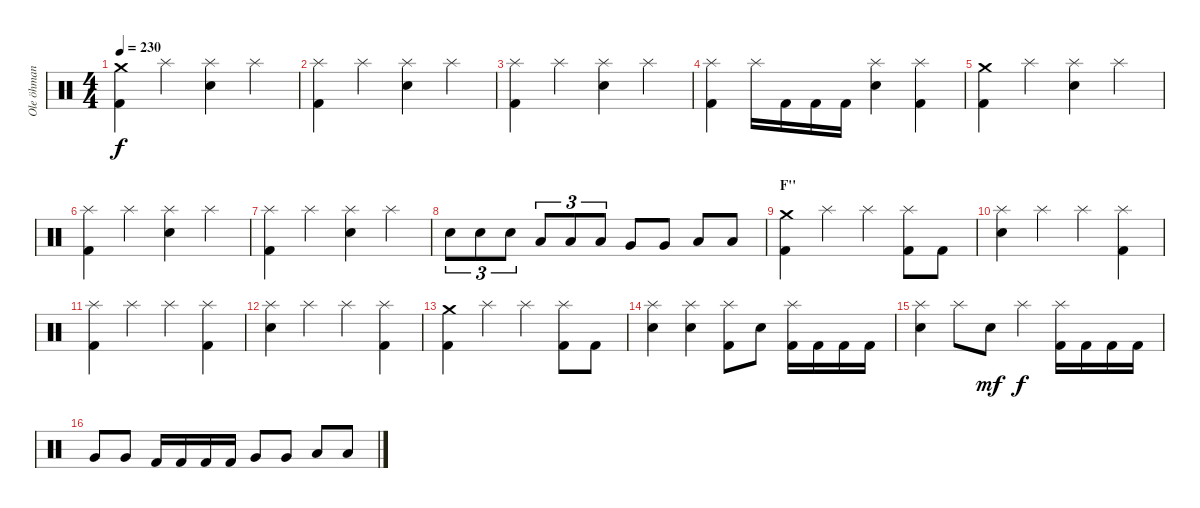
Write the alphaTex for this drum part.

\track ("Ole öhman" "Ole öhman") {instrument percussion}
\staff {score}
\articulation defaults
\ts (4 4)
\tempo 230
\clef neutral
\ks c
("Crash medium (hit)" "Kick (hit) 2").4{dy f} "Splash (hit)".4 ("Splash (hit)" "Electric Snare (hit)").4 "Splash (hit)".4 |
("Splash (hit)" "Kick (hit) 2").4 "Splash (hit)".4 ("Splash (hit)" "Electric Snare (hit)").4 "Splash (hit)".4 |
("Splash (hit)" "Kick (hit) 2").4 "Splash (hit)".4 ("Splash (hit)" "Electric Snare (hit)").4 "Splash (hit)".4 |
("Splash (hit)" "Kick (hit) 2").4 "Splash (hit)".16 "Kick (hit) 2".16 "Kick (hit) 2".16 "Kick (hit) 2".16 ("Splash (hit)" "Electric Snare (hit)").4 ("Splash (hit)" "Kick (hit) 2").4 |
("Crash medium (hit)" "Kick (hit) 2").4 "Splash (hit)".4 ("Splash (hit)" "Electric Snare (hit)").4 "Splash (hit)".4 |
("Splash (hit)" "Kick (hit) 2").4 "Splash (hit)".4 ("Splash (hit)" "Electric Snare (hit)").4 "Splash (hit)".4 |
("Splash (hit)" "Kick (hit) 2").4 "Splash (hit)".4 ("Splash (hit)" "Electric Snare (hit)").4 "Splash (hit)".4 |
"Electric Snare (hit)".8{tu (3 2)} "Electric Snare (hit)".8{tu (3 2)} "Electric Snare (hit)".8{tu (3 2)} "Low Tom (hit)".8{tu (3 2)} "Low Tom (hit)".8{tu (3 2)} "Low Tom (hit)".8{tu (3 2)} "Very Low Tom (hit)".8 "Very Low Tom (hit)".8 "Low Floor Tom (hit)".8 "Low Floor Tom (hit)".8 |
\section ("" "F''")
("Crash medium (hit)" "Kick (hit) 2").4 "Splash (hit)".4 "Splash (hit)".4 ("Splash (hit)" "Kick (hit) 2").8 "Kick (hit) 2".8 |
("Splash (hit)" "Electric Snare (hit)").4 "Splash (hit)".4 "Splash (hit)".4 ("Splash (hit)" "Kick (hit) 2").4 |
("Splash (hit)" "Kick (hit) 2").4 "Splash (hit)".4 "Splash (hit)".4 ("Splash (hit)" "Kick (hit) 2").4 |
("Splash (hit)" "Electric Snare (hit)").4 "Splash (hit)".4 "Splash (hit)".4 ("Splash (hit)" "Kick (hit) 2").4 |
("Crash medium (hit)" "Kick (hit) 2").4 "Splash (hit)".4 "Splash (hit)".4 ("Splash (hit)" "Kick (hit) 2").8 "Kick (hit) 2".8 |
("Splash (hit)" "Electric Snare (hit)").4 ("Splash (hit)" "Electric Snare (hit)").4 ("Splash (hit)" "Kick (hit) 2").8 "Electric Snare (hit)".8 ("Splash (hit)" "Kick (hit) 2").16 "Kick (hit) 2".16 "Kick (hit) 2".16 "Kick (hit) 2".16 |
("Splash (hit)" "Electric Snare (hit)").4 "Splash (hit)".8 "Electric Snare (hit)".8{dy mf} "Splash (hit)".4{dy f} ("Splash (hit)" "Kick (hit) 2").16 "Kick (hit) 2".16 "Kick (hit) 2".16 "Kick (hit) 2".16 |
"Very Low Tom (hit)".8 "Very Low Tom (hit)".8 "Kick (hit) 2".16 "Kick (hit) 2".16 "Kick (hit) 2".16 "Kick (hit) 2".16 "Very Low Tom (hit)".8 "Very Low Tom (hit)".8 "Low Floor Tom (hit)".8 "Low Floor Tom (hit)".8
